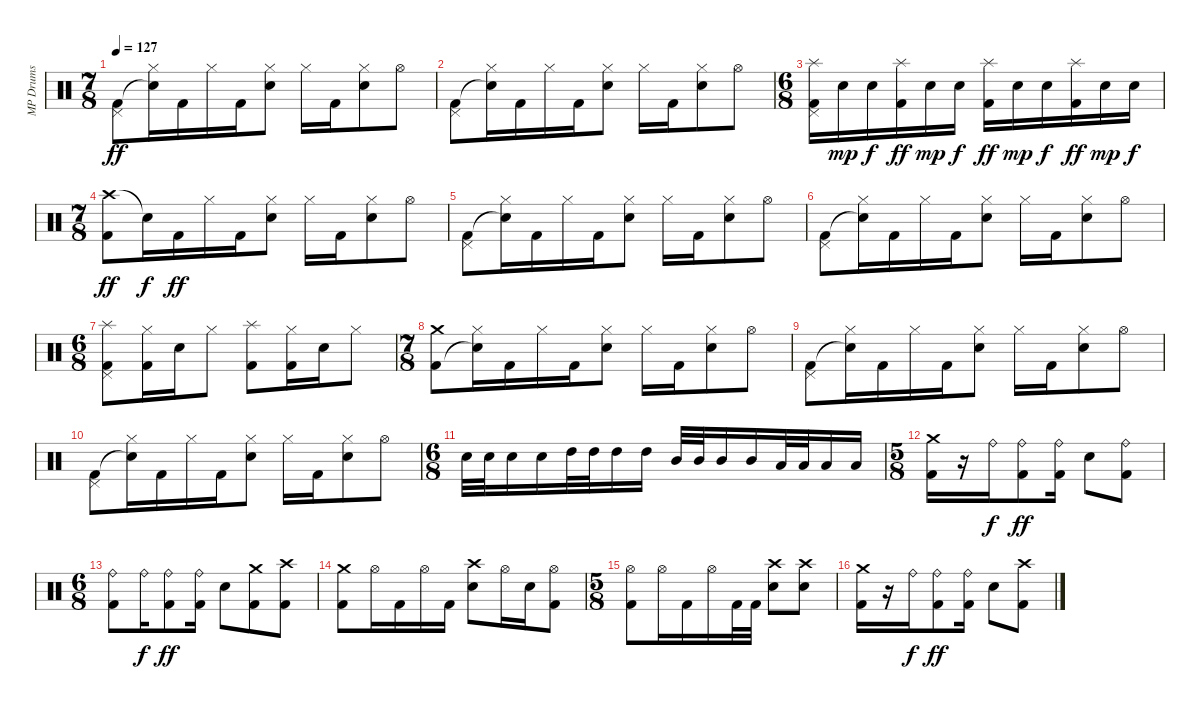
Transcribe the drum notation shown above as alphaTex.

\track ("MP Drums" "MP Drums") {instrument percussion}
\staff {score}
\articulation defaults
\ts (7 8)
\tempo 127
\clef neutral
\ks c
("Pedal Hi-Hat (hit)" "Kick (hit) 2").8{dy ff} ("Hi-Hat (closed)" "Snare (hit)"{t}).16 "Kick (hit) 2".16 "Hi-Hat (closed)".16 "Kick (hit) 2".16 ("Hi-Hat (closed)" "Snare (hit) 2").8 "Hi-Hat (closed)".16 "Kick (hit) 2".16 ("Hi-Hat (closed)" "Snare (hit) 2").8 "Hi-Hat (open)".8 |
("Pedal Hi-Hat (hit)" "Kick (hit) 2").8 ("Hi-Hat (closed)" "Snare (hit)"{t}).16 "Kick (hit) 2".16 "Hi-Hat (closed)".16 "Kick (hit) 2".16 ("Hi-Hat (closed)" "Snare (hit) 2").8 "Hi-Hat (closed)".16 "Kick (hit) 2".16 ("Hi-Hat (closed)" "Snare (hit) 2").8 "Hi-Hat (open)".8 |
\ts (6 8)
("Splash (hit)" "Pedal Hi-Hat (hit)" "Kick (hit) 2").16 "Snare (hit) 2".16{dy mp} "Snare (hit) 2".16{dy f} ("Splash (hit)" "Kick (hit) 2").16{dy ff} "Snare (hit) 2".16{dy mp} "Snare (hit) 2".16{dy f} ("Splash (hit)" "Kick (hit) 2").16{dy ff} "Snare (hit) 2".16{dy mp} "Snare (hit) 2".16{dy f} ("Splash (hit)" "Kick (hit) 2").16{dy ff} "Snare (hit) 2".16{dy mp} "Snare (hit) 2".16{dy f} |
\ts (7 8)
("Crash high (hit)" "Kick (hit) 2").8{dy ff} "Snare (hit)"{t}.16{dy f} "Kick (hit) 2".16{dy ff} "Hi-Hat (closed)".16 "Kick (hit) 2".16 ("Hi-Hat (closed)" "Snare (hit) 2").8 "Hi-Hat (closed)".16 "Kick (hit) 2".16 ("Hi-Hat (closed)" "Snare (hit) 2").8 "Hi-Hat (open)".8 |
("Pedal Hi-Hat (hit)" "Kick (hit) 2").8 ("Hi-Hat (closed)" "Snare (hit)"{t}).16 "Kick (hit) 2".16 "Hi-Hat (closed)".16 "Kick (hit) 2".16 ("Hi-Hat (closed)" "Snare (hit) 2").8 "Hi-Hat (closed)".16 "Kick (hit) 2".16 ("Hi-Hat (closed)" "Snare (hit) 2").8 "Hi-Hat (open)".8 |
("Pedal Hi-Hat (hit)" "Kick (hit) 2").8 ("Hi-Hat (closed)" "Snare (hit)"{t}).16 "Kick (hit) 2".16 "Hi-Hat (closed)".16 "Kick (hit) 2".16 ("Hi-Hat (closed)" "Snare (hit) 2").8 "Hi-Hat (closed)".16 "Kick (hit) 2".16 ("Hi-Hat (closed)" "Snare (hit) 2").8 "Hi-Hat (open)".8 |
\ts (6 8)
("Splash (hit)" "Pedal Hi-Hat (hit)" "Kick (hit) 2").8 ("Hi-Hat (closed)" "Kick (hit) 2").16 "Snare (hit) 2".16 "Hi-Hat (closed)".8 ("Splash (hit)" "Kick (hit) 2").8 ("Hi-Hat (closed)" "Kick (hit) 2").16 "Snare (hit) 2".16 "Hi-Hat (closed)".8 |
\ts (7 8)
("Crash medium (hit)" "Kick (hit) 2").8 ("Hi-Hat (closed)" "Snare (hit)"{t}).16 "Kick (hit) 2".16 "Hi-Hat (closed)".16 "Kick (hit) 2".16 ("Hi-Hat (closed)" "Snare (hit) 2").8 "Hi-Hat (closed)".16 "Kick (hit) 2".16 ("Hi-Hat (closed)" "Snare (hit) 2").8 "Hi-Hat (open)".8 |
("Pedal Hi-Hat (hit)" "Kick (hit) 2").8 ("Hi-Hat (closed)" "Snare (hit)"{t}).16 "Kick (hit) 2".16 "Hi-Hat (closed)".16 "Kick (hit) 2".16 ("Hi-Hat (closed)" "Snare (hit) 2").8 "Hi-Hat (closed)".16 "Kick (hit) 2".16 ("Hi-Hat (closed)" "Snare (hit) 2").8 "Hi-Hat (open)".8 |
("Pedal Hi-Hat (hit)" "Kick (hit) 2").8 ("Hi-Hat (closed)" "Snare (hit)"{t}).16 "Kick (hit) 2".16 "Hi-Hat (closed)".16 "Kick (hit) 2".16 ("Hi-Hat (closed)" "Snare (hit) 2").8 "Hi-Hat (closed)".16 "Kick (hit) 2".16 ("Hi-Hat (closed)" "Snare (hit) 2").8 "Hi-Hat (open)".8 |
\ts (6 8)
"Snare (hit) 2".32 "Snare (hit) 2".32 "Snare (hit) 2".16 "Snare (hit) 2".16 "High Tom (hit)".32 "High Tom (hit)".32 "High Tom (hit)".16 "High Tom (hit)".16 "Mid Tom (hit)".32 "Mid Tom (hit)".32 "Mid Tom (hit)".16 "Mid Tom (hit)".16 "Low Tom (hit)".32 "Low Tom (hit)".32 "Low Tom (hit)".16 "Low Tom (hit)".16 |
\ts (5 8)
("Crash medium (hit)" "Kick (hit) 2").16 r.16 "Ride (bell)".16{dy f} ("Ride (bell)" "Kick (hit) 2").8{dy ff} ("Ride (bell)" "Kick (hit) 2").16 "Snare (hit) 2".8 ("Ride (bell)" "Kick (hit) 2").8 |
\ts (6 8)
("Ride (bell)" "Kick (hit) 2").8 "Ride (bell)".16{dy f} ("Ride (bell)" "Kick (hit) 2").8{dy ff} ("Ride (bell)" "Kick (hit) 2").16 "Snare (hit) 2".8 ("Crash medium (hit)" "Kick (hit) 2").8 ("Crash high (hit)" "Kick (hit) 2").8 |
("Crash medium (hit)" "Kick (hit) 2").8 "Hi-Hat (open)".16 "Kick (hit) 2".16 "Hi-Hat (open)".16 "Kick (hit) 2".16 ("Crash high (hit)" "Snare (hit) 2").8 "Hi-Hat (open)".16 "Snare (hit) 2".16 ("Hi-Hat (open)" "Kick (hit) 2").8 |
\ts (5 8)
("Hi-Hat (open)" "Kick (hit) 2").8 "Hi-Hat (open)".16 "Kick (hit) 2".16 "Hi-Hat (open)".16 "Kick (hit) 2".32 "Kick (hit) 2".32 ("Crash high (hit)" "Snare (hit) 2").8 ("Crash high (hit)" "Snare (hit) 2").8 |
("Crash medium (hit)" "Kick (hit) 2").16 r.16 "Ride (bell)".16{dy f} ("Ride (bell)" "Kick (hit) 2").8{dy ff} ("Ride (bell)" "Kick (hit) 2").16 "Snare (hit) 2".8 ("Crash high (hit)" "Kick (hit) 2").8
